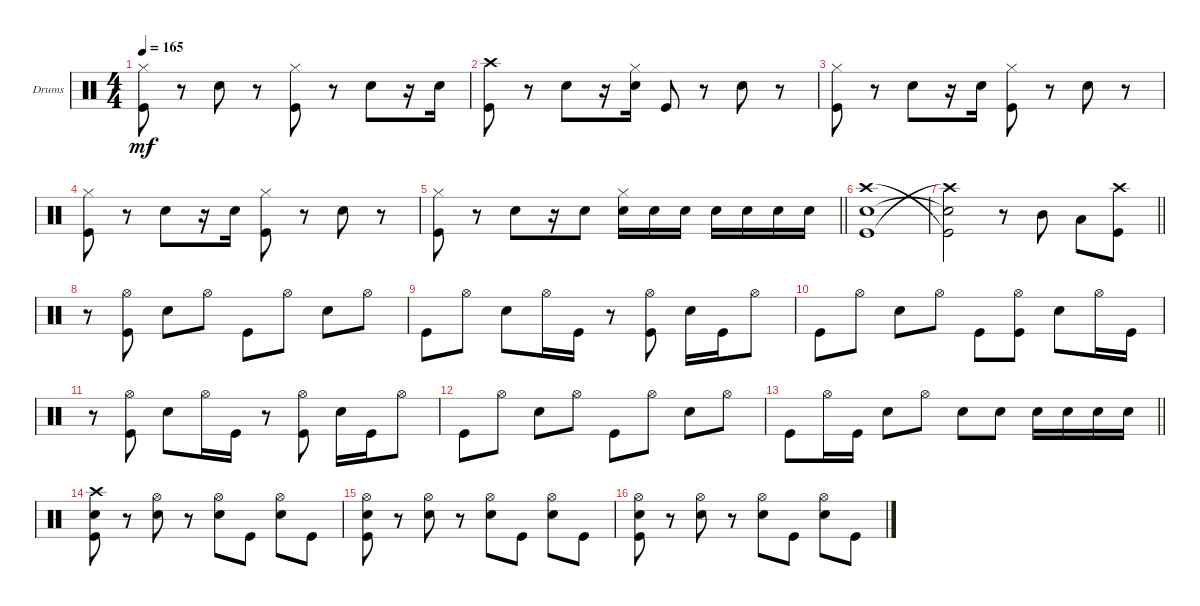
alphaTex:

\defaultSystemsLayout 4
\bracketExtendMode groupsimilarinstruments
\firstSystemTrackNameOrientation horizontal
\otherSystemsTrackNameOrientation horizontal
\track ("Drumkit" "Drums") {instrument percussion}
\staff {score}
\articulation defaults
\ts (4 4)
\tempo 165
\clef neutral
\ks c
("Kick (hit)" "Hi-Hat (closed)").8{dy mf} r.8 "Snare (hit) 2".8 r.8 ("Kick (hit)" "Hi-Hat (closed)").8 r.8 "Snare (hit) 2".8 r.16 "Snare (hit) 2".16 |
("Kick (hit)" "Crash high (hit)").8 r.8 "Snare (hit) 2".8 r.16 ("Snare (hit) 2" "Hi-Hat (closed)").16 "Kick (hit)".8 r.8 "Snare (hit) 2".8 r.8 |
("Kick (hit)" "Hi-Hat (closed)").8 r.8 "Snare (hit) 2".8 r.16 "Snare (hit) 2".16 ("Kick (hit)" "Hi-Hat (closed)").8 r.8 "Snare (hit) 2".8 r.8 |
("Kick (hit)" "Hi-Hat (closed)").8 r.8 "Snare (hit) 2".8 r.16 "Snare (hit) 2".16 ("Kick (hit)" "Hi-Hat (closed)").8 r.8 "Snare (hit) 2".8 r.8 |
\barLineRight lightlight
("Kick (hit)" "Hi-Hat (closed)").8 r.8 "Snare (hit) 2".8 r.16 "Snare (hit) 2".8 ("Snare (hit) 2" "Hi-Hat (closed)").16 "Snare (hit) 2".16 "Snare (hit) 2".16 "Snare (hit) 2".16 "Snare (hit) 2".16 "Snare (hit) 2".16 "Snare (hit) 2".16 |
("Kick (hit)" "Snare (hit) 2" "Crash high (hit)").1 |
\barLineRight lightlight
("Crash high (hit)"{t} "Snare (hit) 2"{t} "Kick (hit)"{t}).2 r.8 "Mid Tom (hit)".8 "Low Tom (hit)".8 ("Kick (hit)" "Crash high (hit)").8 |
r.8 ("Kick (hit)" "Hi-Hat (open)").8 "Snare (hit) 2".8 "Hi-Hat (open)".8 "Kick (hit)".8 "Hi-Hat (open)".8 "Snare (hit) 2".8 "Hi-Hat (open)".8 |
"Kick (hit)".8 "Hi-Hat (open)".8 "Snare (hit) 2".8 "Hi-Hat (open)".16 "Kick (hit)".16 r.8 ("Kick (hit)" "Hi-Hat (open)").8 "Snare (hit) 2".16 "Kick (hit)".16 "Hi-Hat (open)".8 |
"Kick (hit)".8 "Hi-Hat (open)".8 "Snare (hit) 2".8 "Hi-Hat (open)".8 "Kick (hit)".8 ("Kick (hit)" "Hi-Hat (open)").8 "Snare (hit) 2".8 "Hi-Hat (open)".16 "Kick (hit)".16 |
r.8 ("Kick (hit)" "Hi-Hat (open)").8 "Snare (hit) 2".8 "Hi-Hat (open)".16 "Kick (hit)".16 r.8 ("Kick (hit)" "Hi-Hat (open)").8 "Snare (hit) 2".16 "Kick (hit)".16 "Hi-Hat (open)".8 |
"Kick (hit)".8 "Hi-Hat (open)".8 "Snare (hit) 2".8 "Hi-Hat (open)".8 "Kick (hit)".8 "Hi-Hat (open)".8 "Snare (hit) 2".8 "Hi-Hat (open)".8 |
\barLineRight lightlight "Kick (hit)".8 "Hi-Hat (open)".16 "Kick (hit)".16 "Snare (hit) 2".8 "Hi-Hat (open)".8 "Snare (hit) 2".8 "Snare (hit) 2".8 "Snare (hit) 2".16 "Snare (hit) 2".16 "Snare (hit) 2".16 "Snare (hit) 2".16
|
("Kick (hit)" "Snare (hit) 2" "Crash high (hit)").8 r.8 ("Snare (hit) 2" "Hi-Hat (open)").8 r.8 ("Snare (hit) 2" "Hi-Hat (open)").8 "Kick (hit)".8 ("Snare (hit) 2" "Hi-Hat (open)").8 "Kick (hit)".8 |
("Kick (hit)" "Snare (hit) 2" "Hi-Hat (open)").8 r.8 ("Snare (hit) 2" "Hi-Hat (open)").8 r.8 ("Snare (hit) 2" "Hi-Hat (open)").8 "Kick (hit)".8 ("Snare (hit) 2" "Hi-Hat (open)").8 "Kick (hit)".8 |
("Kick (hit)" "Snare (hit) 2" "Hi-Hat (open)").8 r.8 ("Snare (hit) 2" "Hi-Hat (open)").8 r.8 ("Snare (hit) 2" "Hi-Hat (open)").8 "Kick (hit)".8 ("Snare (hit) 2" "Hi-Hat (open)").8 "Kick (hit)".8
